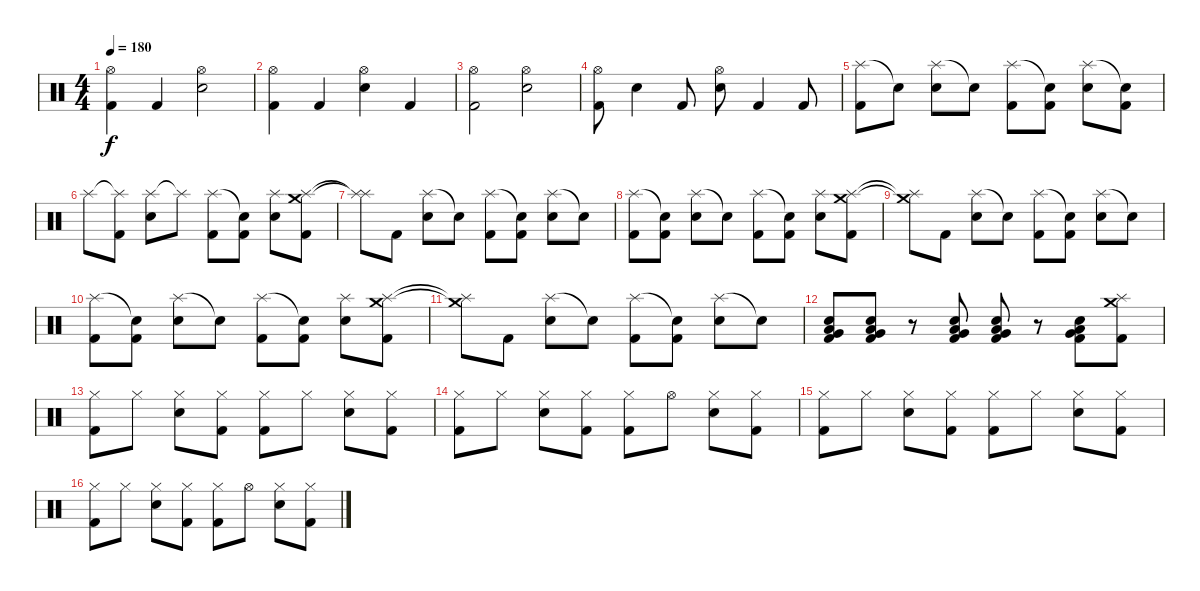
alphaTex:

\track (" " " ") {instrument percussion}
\staff {score}
\articulation defaults
\ts (4 4)
\tempo 180
\clef neutral
\ks c
("Hi-Hat (open)" "Kick (hit) 2").4{dy f} "Kick (hit) 2".4 ("Hi-Hat (open)" "Electric Snare (hit)").2 |
("Hi-Hat (open)" "Kick (hit) 2").4 "Kick (hit) 2".4 ("Hi-Hat (open)" "Electric Snare (hit)").4 "Kick (hit) 2".4 |
("Hi-Hat (open)" "Kick (hit) 2").2 ("Hi-Hat (open)" "Electric Snare (hit)").2 |
("Hi-Hat (open)" "Kick (hit) 2").8 "Electric Snare (hit)".4 "Kick (hit) 2".8 ("Hi-Hat (open)" "Electric Snare (hit)").8 "Kick (hit) 2".4 "Kick (hit) 2".8 |
("Splash (hit)" "Kick (hit) 2").8 "Snare (hit)"{t}.8 ("Splash (hit)" "Electric Snare (hit)").8 "Snare (hit)"{t}.8 ("Splash (hit)" "Kick (hit) 2").8 ("Snare (hit)"{t} "Kick (hit) 2").8 ("Splash (hit)" "Electric Snare (hit)").8 ("Snare (hit)"{t} "Kick (hit) 2").8 |
"Splash (hit)".8 ("Splash (hit)"{t} "Kick (hit) 2").8 ("Splash (hit)" "Electric Snare (hit)").8 "Splash (hit)"{t}.8 ("Splash (hit)" "Kick (hit) 2").8 ("Snare (hit)"{t} "Kick (hit) 2").8 ("Splash (hit)" "Electric Snare (hit)").8 ("Crash medium (hit)" "Splash (hit)" "Kick (hit) 2").8 |
("Splash (hit)"{t} "Splash (hit)"{t}).8 "Kick (hit) 2".8 ("Splash (hit)" "Electric Snare (hit)").8 "Snare (hit)"{t}.8 ("Splash (hit)" "Kick (hit) 2").8 ("Snare (hit)"{t} "Kick (hit) 2").8 ("Splash (hit)" "Electric Snare (hit)").8 "Snare (hit)"{t}.8 |
("Splash (hit)" "Kick (hit) 2").8 ("Snare (hit)"{t} "Kick (hit) 2").8 ("Splash (hit)" "Electric Snare (hit)").8 "Snare (hit)"{t}.8 ("Splash (hit)" "Kick (hit) 2").8 ("Snare (hit)"{t} "Kick (hit) 2").8 ("Splash (hit)" "Electric Snare (hit)").8 ("Crash medium (hit)" "Splash (hit)" "Kick (hit) 2").8 |
("Crash medium (hit)"{t} "Splash (hit)"{t}).8 "Kick (hit) 2".8 ("Splash (hit)" "Electric Snare (hit)").8 "Snare (hit)"{t}.8 ("Splash (hit)" "Kick (hit) 2").8 ("Snare (hit)"{t} "Kick (hit) 2").8 ("Splash (hit)" "Electric Snare (hit)").8 "Snare (hit)"{t}.8 |
("Splash (hit)" "Kick (hit) 2").8 ("Snare (hit)"{t} "Kick (hit) 2").8 ("Splash (hit)" "Electric Snare (hit)").8 "Snare (hit)"{t}.8 ("Splash (hit)" "Kick (hit) 2").8 ("Snare (hit)"{t} "Kick (hit) 2").8 ("Splash (hit)" "Electric Snare (hit)").8 ("Crash medium (hit)" "Splash (hit)" "Kick (hit) 2").8 |
("Crash medium (hit)"{t} "Splash (hit)"{t}).8 "Kick (hit) 2".8 ("Splash (hit)" "Electric Snare (hit)").8 "Snare (hit)"{t}.8 ("Splash (hit)" "Kick (hit) 2").8 ("Snare (hit)"{t} "Kick (hit) 2").8 ("Splash (hit)" "Electric Snare (hit)").8 "Snare (hit)"{t}.8 |
("Electric Snare (hit)" "Low Floor Tom (hit)" "Very Low Tom (hit)" "Kick (hit) 2").8 ("Electric Snare (hit)" "Low Floor Tom (hit)" "Very Low Tom (hit)" "Kick (hit) 2").8 r.8 ("Electric Snare (hit)" "Low Floor Tom (hit)" "Very Low Tom (hit)" "Kick (hit) 2").8 ("Electric Snare (hit)" "Low Floor Tom (hit)" "Very Low Tom (hit)" "Kick (hit) 2").8 r.8 ("Electric Snare (hit)" "Low Floor Tom (hit)" "Very Low Tom (hit)" "Kick (hit) 2").8 ("Splash (hit)" "Crash medium (hit)" "Kick (hit) 2").8 |
("Hi-Hat (closed)" "Kick (hit) 2").8 "Hi-Hat (closed)".8 ("Hi-Hat (closed)" "Electric Snare (hit)").8 ("Hi-Hat (closed)" "Kick (hit) 2").8 ("Hi-Hat (closed)" "Kick (hit) 2").8 "Hi-Hat (closed)".8 ("Hi-Hat (closed)" "Electric Snare (hit)").8 ("Hi-Hat (closed)" "Kick (hit) 2").8 |
("Hi-Hat (closed)" "Kick (hit) 2").8 "Hi-Hat (closed)".8 ("Hi-Hat (closed)" "Electric Snare (hit)").8 ("Hi-Hat (closed)" "Kick (hit) 2").8 ("Hi-Hat (closed)" "Kick (hit) 2").8 "Hi-Hat (open)".8 ("Hi-Hat (closed)" "Electric Snare (hit)").8 ("Hi-Hat (closed)" "Kick (hit) 2").8 |
("Hi-Hat (closed)" "Kick (hit) 2").8 "Hi-Hat (closed)".8 ("Hi-Hat (closed)" "Electric Snare (hit)").8 ("Hi-Hat (closed)" "Kick (hit) 2").8 ("Hi-Hat (closed)" "Kick (hit) 2").8 "Hi-Hat (closed)".8 ("Hi-Hat (closed)" "Electric Snare (hit)").8 ("Hi-Hat (closed)" "Kick (hit) 2").8 |
("Hi-Hat (closed)" "Kick (hit) 2").8 "Hi-Hat (closed)".8 ("Hi-Hat (closed)" "Electric Snare (hit)").8 ("Hi-Hat (closed)" "Kick (hit) 2").8 ("Hi-Hat (closed)" "Kick (hit) 2").8 "Hi-Hat (open)".8 ("Hi-Hat (closed)" "Electric Snare (hit)").8 ("Hi-Hat (closed)" "Kick (hit) 2").8
